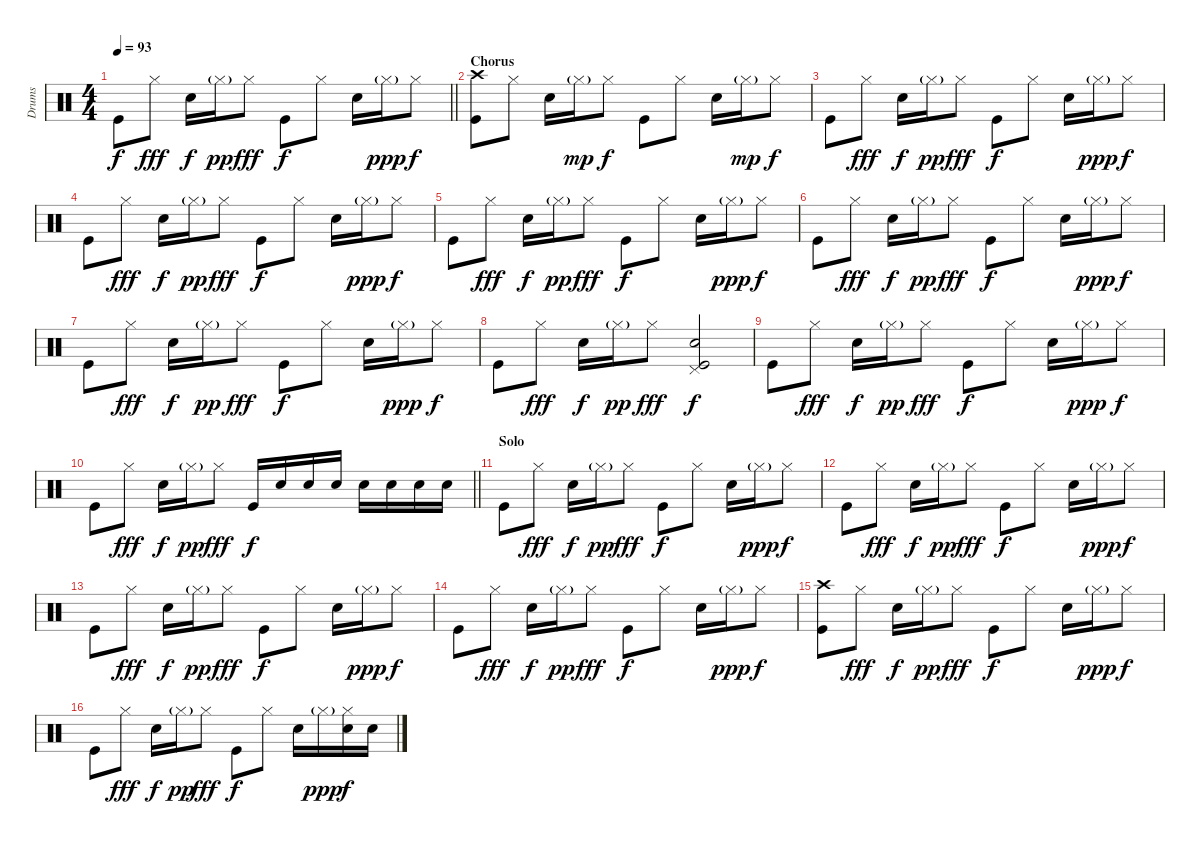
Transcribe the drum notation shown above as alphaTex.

\track ("Drums" "Drums") {instrument percussion}
\staff {score}
\articulation defaults
\ts (4 4)
\tempo 93
\clef neutral
\barLineRight lightlight
\ks c "Kick (hit)".8{dy f} "Hi-Hat (closed)".8{dy fff} "Snare (hit) 2".16{dy f} "Hi-Hat (closed)"{g}.16{dy pp} "Hi-Hat (closed)".8{dy fff} "Kick (hit)".8{dy f} "Hi-Hat (closed)".8 "Snare (hit) 2".16 "Hi-Hat (closed)"{g}.16{dy ppp} "Hi-Hat (closed)".8{dy f}
|
\section ("" "Chorus")
("Crash high (hit)" "Kick (hit)").8 "Hi-Hat (closed)".8 "Snare (hit) 2".16 "Hi-Hat (closed)"{g}.16{dy mp} "Hi-Hat (closed)".8{dy f} "Kick (hit)".8 "Hi-Hat (closed)".8 "Snare (hit) 2".16 "Hi-Hat (closed)"{g}.16{dy mp} "Hi-Hat (closed)".8{dy f} |
"Kick (hit)".8 "Hi-Hat (closed)".8{dy fff} "Snare (hit) 2".16{dy f} "Hi-Hat (closed)"{g}.16{dy pp} "Hi-Hat (closed)".8{dy fff} "Kick (hit)".8{dy f} "Hi-Hat (closed)".8 "Snare (hit) 2".16 "Hi-Hat (closed)"{g}.16{dy ppp} "Hi-Hat (closed)".8{dy f} |
"Kick (hit)".8 "Hi-Hat (closed)".8{dy fff} "Snare (hit) 2".16{dy f} "Hi-Hat (closed)"{g}.16{dy pp} "Hi-Hat (closed)".8{dy fff} "Kick (hit)".8{dy f} "Hi-Hat (closed)".8 "Snare (hit) 2".16 "Hi-Hat (closed)"{g}.16{dy ppp} "Hi-Hat (closed)".8{dy f} |
"Kick (hit)".8 "Hi-Hat (closed)".8{dy fff} "Snare (hit) 2".16{dy f} "Hi-Hat (closed)"{g}.16{dy pp} "Hi-Hat (closed)".8{dy fff} "Kick (hit)".8{dy f} "Hi-Hat (closed)".8 "Snare (hit) 2".16 "Hi-Hat (closed)"{g}.16{dy ppp} "Hi-Hat (closed)".8{dy f} |
"Kick (hit)".8 "Hi-Hat (closed)".8{dy fff} "Snare (hit) 2".16{dy f} "Hi-Hat (closed)"{g}.16{dy pp} "Hi-Hat (closed)".8{dy fff} "Kick (hit)".8{dy f} "Hi-Hat (closed)".8 "Snare (hit) 2".16 "Hi-Hat (closed)"{g}.16{dy ppp} "Hi-Hat (closed)".8{dy f} |
"Kick (hit)".8 "Hi-Hat (closed)".8{dy fff} "Snare (hit) 2".16{dy f} "Hi-Hat (closed)"{g}.16{dy pp} "Hi-Hat (closed)".8{dy fff} "Kick (hit)".8{dy f} "Hi-Hat (closed)".8 "Snare (hit) 2".16 "Hi-Hat (closed)"{g}.16{dy ppp} "Hi-Hat (closed)".8{dy f} |
"Kick (hit)".8 "Hi-Hat (closed)".8{dy fff} "Snare (hit) 2".16{dy f} "Hi-Hat (closed)"{g}.16{dy pp} "Hi-Hat (closed)".8{dy fff} ("Snare (hit) 2" "Pedal Hi-Hat (hit)" "Kick (hit)").2{dy f} |
"Kick (hit)".8 "Hi-Hat (closed)".8{dy fff} "Snare (hit) 2".16{dy f} "Hi-Hat (closed)"{g}.16{dy pp} "Hi-Hat (closed)".8{dy fff} "Kick (hit)".8{dy f} "Hi-Hat (closed)".8 "Snare (hit) 2".16 "Hi-Hat (closed)"{g}.16{dy ppp} "Hi-Hat (closed)".8{dy f} |
\barLineRight lightlight "Kick (hit)".8 "Hi-Hat (closed)".8{dy fff} "Snare (hit) 2".16{dy f} "Hi-Hat (closed)"{g}.16{dy pp} "Hi-Hat (closed)".8{dy fff} "Kick (hit)".16{dy f} "Electric Snare (hit)".16 "Electric Snare (hit)".16 "Electric Snare (hit)".16 "Electric Snare (hit)".16 "Snare (hit) 2".16 "Snare (hit) 2".16 "Snare (hit) 2".16
|
\section ("" "Solo")
"Kick (hit)".8 "Hi-Hat (closed)".8{dy fff} "Snare (hit) 2".16{dy f} "Hi-Hat (closed)"{g}.16{dy pp} "Hi-Hat (closed)".8{dy fff} "Kick (hit)".8{dy f} "Hi-Hat (closed)".8 "Snare (hit) 2".16 "Hi-Hat (closed)"{g}.16{dy ppp} "Hi-Hat (closed)".8{dy f} |
"Kick (hit)".8 "Hi-Hat (closed)".8{dy fff} "Snare (hit) 2".16{dy f} "Hi-Hat (closed)"{g}.16{dy pp} "Hi-Hat (closed)".8{dy fff} "Kick (hit)".8{dy f} "Hi-Hat (closed)".8 "Snare (hit) 2".16 "Hi-Hat (closed)"{g}.16{dy ppp} "Hi-Hat (closed)".8{dy f} |
"Kick (hit)".8 "Hi-Hat (closed)".8{dy fff} "Snare (hit) 2".16{dy f} "Hi-Hat (closed)"{g}.16{dy pp} "Hi-Hat (closed)".8{dy fff} "Kick (hit)".8{dy f} "Hi-Hat (closed)".8 "Snare (hit) 2".16 "Hi-Hat (closed)"{g}.16{dy ppp} "Hi-Hat (closed)".8{dy f} |
"Kick (hit)".8 "Hi-Hat (closed)".8{dy fff} "Snare (hit) 2".16{dy f} "Hi-Hat (closed)"{g}.16{dy pp} "Hi-Hat (closed)".8{dy fff} "Kick (hit)".8{dy f} "Hi-Hat (closed)".8 "Snare (hit) 2".16 "Hi-Hat (closed)"{g}.16{dy ppp} "Hi-Hat (closed)".8{dy f} |
("Crash high (hit)" "Kick (hit)").8 "Hi-Hat (closed)".8{dy fff} "Snare (hit) 2".16{dy f} "Hi-Hat (closed)"{g}.16{dy pp} "Hi-Hat (closed)".8{dy fff} "Kick (hit)".8{dy f} "Hi-Hat (closed)".8 "Snare (hit) 2".16 "Hi-Hat (closed)"{g}.16{dy ppp} "Hi-Hat (closed)".8{dy f} |
"Kick (hit)".8 "Hi-Hat (closed)".8{dy fff} "Snare (hit) 2".16{dy f} "Hi-Hat (closed)"{g}.16{dy pp} "Hi-Hat (closed)".8{dy fff} "Kick (hit)".8{dy f} "Hi-Hat (closed)".8 "Snare (hit) 2".16 "Hi-Hat (closed)"{g}.16{dy ppp} ("Hi-Hat (closed)" "Snare (hit) 2").16{dy f} "Snare (hit) 2".16
